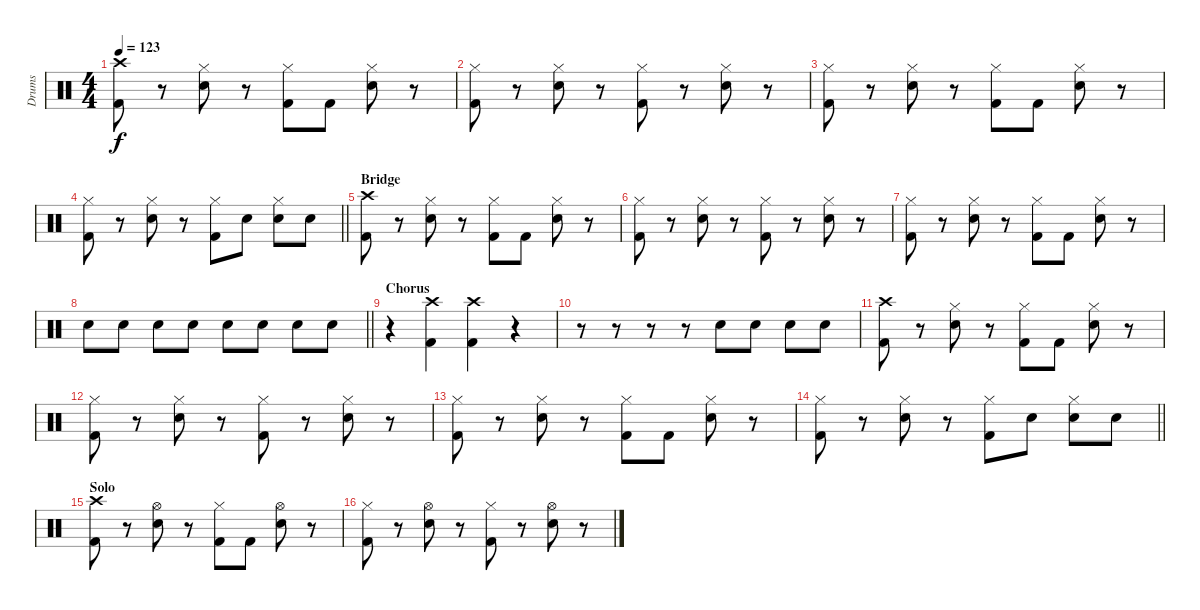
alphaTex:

\track ("Drums" "Drums") {instrument percussion}
\staff {score}
\articulation defaults
\ts (4 4)
\tempo 123
\clef neutral
\ks c
("Crash high (hit)" "Kick (hit) 2").8{dy f} r.8 ("Hi-Hat (closed)" "Snare (hit) 2").8 r.8 ("Hi-Hat (closed)" "Kick (hit) 2").8 "Kick (hit) 2".8 ("Hi-Hat (closed)" "Snare (hit) 2").8 r.8 |
("Hi-Hat (closed)" "Kick (hit) 2").8 r.8 ("Hi-Hat (closed)" "Snare (hit) 2").8 r.8 ("Hi-Hat (closed)" "Kick (hit) 2").8 r.8 ("Hi-Hat (closed)" "Snare (hit) 2").8 r.8 |
("Hi-Hat (closed)" "Kick (hit) 2").8 r.8 ("Hi-Hat (closed)" "Snare (hit) 2").8 r.8 ("Hi-Hat (closed)" "Kick (hit) 2").8 "Kick (hit) 2".8 ("Hi-Hat (closed)" "Snare (hit) 2").8 r.8 |
\barLineRight lightlight
("Hi-Hat (closed)" "Kick (hit) 2").8 r.8 ("Hi-Hat (closed)" "Snare (hit) 2").8 r.8 ("Hi-Hat (closed)" "Kick (hit) 2").8 "Snare (hit) 2".8 ("Hi-Hat (closed)" "Snare (hit) 2").8 "Snare (hit) 2".8 |
\section ("" "Bridge")
("Crash high (hit)" "Kick (hit) 2").8 r.8 ("Hi-Hat (closed)" "Snare (hit) 2").8 r.8 ("Hi-Hat (closed)" "Kick (hit) 2").8 "Kick (hit) 2".8 ("Hi-Hat (closed)" "Snare (hit) 2").8 r.8 |
("Hi-Hat (closed)" "Kick (hit) 2").8 r.8 ("Hi-Hat (closed)" "Snare (hit) 2").8 r.8 ("Hi-Hat (closed)" "Kick (hit) 2").8 r.8 ("Hi-Hat (closed)" "Snare (hit) 2").8 r.8 |
("Hi-Hat (closed)" "Kick (hit) 2").8 r.8 ("Hi-Hat (closed)" "Snare (hit) 2").8 r.8 ("Hi-Hat (closed)" "Kick (hit) 2").8 "Kick (hit) 2".8 ("Hi-Hat (closed)" "Snare (hit) 2").8 r.8 |
\barLineRight lightlight "Snare (hit) 2".8 "Snare (hit) 2".8 "Snare (hit) 2".8 "Snare (hit) 2".8 "Snare (hit) 2".8 "Snare (hit) 2".8 "Snare (hit) 2".8 "Snare (hit) 2".8
|
\section ("" "Chorus")
r.4 ("Crash high (hit)" "Kick (hit) 2").4 ("Crash high (hit)" "Kick (hit) 2").4 r.4 |
r.8 r.8 r.8 r.8 "Snare (hit) 2".8 "Snare (hit) 2".8 "Snare (hit) 2".8 "Snare (hit) 2".8 |
("Crash high (hit)" "Kick (hit) 2").8 r.8 ("Hi-Hat (closed)" "Snare (hit) 2").8 r.8 ("Hi-Hat (closed)" "Kick (hit) 2").8 "Kick (hit) 2".8 ("Hi-Hat (closed)" "Snare (hit) 2").8 r.8 |
("Hi-Hat (closed)" "Kick (hit) 2").8 r.8 ("Hi-Hat (closed)" "Snare (hit) 2").8 r.8 ("Hi-Hat (closed)" "Kick (hit) 2").8 r.8 ("Hi-Hat (closed)" "Snare (hit) 2").8 r.8 |
("Hi-Hat (closed)" "Kick (hit) 2").8 r.8 ("Hi-Hat (closed)" "Snare (hit) 2").8 r.8 ("Hi-Hat (closed)" "Kick (hit) 2").8 "Kick (hit) 2".8 ("Hi-Hat (closed)" "Snare (hit) 2").8 r.8 |
\barLineRight lightlight
("Hi-Hat (closed)" "Kick (hit) 2").8 r.8 ("Hi-Hat (closed)" "Snare (hit) 2").8 r.8 ("Hi-Hat (closed)" "Kick (hit) 2").8 "Snare (hit) 2".8 ("Hi-Hat (closed)" "Snare (hit) 2").8 "Snare (hit) 2".8 |
\section ("" "Solo")
("Crash high (hit)" "Kick (hit) 2").8 r.8 ("Hi-Hat (open)" "Snare (hit) 2").8 r.8 ("Hi-Hat (closed)" "Kick (hit) 2").8 "Kick (hit) 2".8 ("Hi-Hat (open)" "Snare (hit) 2").8 r.8 |
("Hi-Hat (closed)" "Kick (hit) 2").8 r.8 ("Hi-Hat (open)" "Snare (hit) 2").8 r.8 ("Hi-Hat (closed)" "Kick (hit) 2").8 r.8 ("Hi-Hat (open)" "Snare (hit) 2").8 r.8
